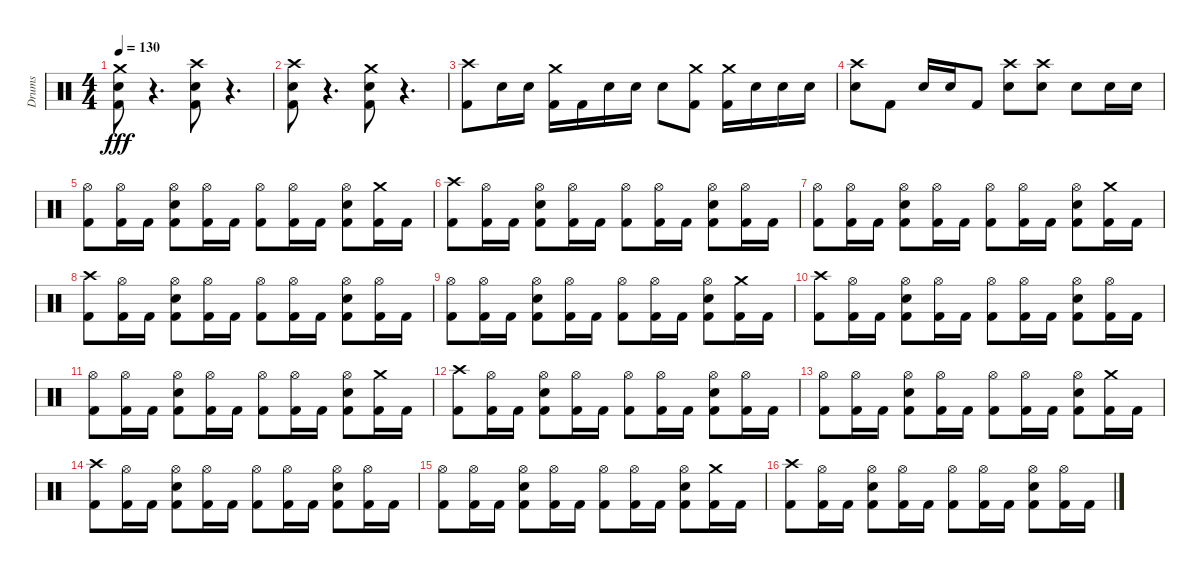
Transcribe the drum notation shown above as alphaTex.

\track ("Drums" "Drums") {instrument percussion}
\staff {score}
\articulation defaults
\ts (4 4)
\tempo 130
\clef neutral
\ks c
("Kick (hit) 2" "Electric Snare (hit)" "Crash medium (hit)").8{dy fff} r.4{d} ("Electric Snare (hit)" "Kick (hit) 2" "Crash high (hit)").8 r.4{d} |
("Crash high (hit)" "Electric Snare (hit)" "Kick (hit) 2").8 r.4{d} ("Electric Snare (hit)" "Kick (hit) 2" "Crash medium (hit)").8 r.4{d} |
("Crash high (hit)" "Kick (hit) 2").8 "Electric Snare (hit)".16 "Electric Snare (hit)".16 ("Crash medium (hit)" "Kick (hit) 2").16 "Kick (hit) 2".16 "Electric Snare (hit)".16 "Electric Snare (hit)".16 "Electric Snare (hit)".8 ("Crash medium (hit)" "Kick (hit) 2").8 ("Crash medium (hit)" "Kick (hit) 2").16 "Electric Snare (hit)".16 "Electric Snare (hit)".16 "Electric Snare (hit)".16 |
("Crash high (hit)" "Electric Snare (hit)").8 "Kick (hit) 2".8 "Electric Snare (hit)".16 "Electric Snare (hit)".16 "Kick (hit) 2".8 ("Crash high (hit)" "Electric Snare (hit)").8 ("Electric Snare (hit)" "Crash high (hit)").8 "Electric Snare (hit)".8 "Electric Snare (hit)".16 "Electric Snare (hit)".16 |
("Hi-Hat (open)" "Kick (hit) 2").8 ("Hi-Hat (open)" "Kick (hit) 2").16 "Kick (hit) 2".16 ("Hi-Hat (open)" "Electric Snare (hit)" "Kick (hit) 2").8 ("Hi-Hat (open)" "Kick (hit) 2").16 "Kick (hit) 2".16 ("Hi-Hat (open)" "Kick (hit) 2").8 ("Hi-Hat (open)" "Kick (hit) 2").16 "Kick (hit) 2".16 ("Hi-Hat (open)" "Electric Snare (hit)" "Kick (hit) 2").8 ("Crash medium (hit)" "Kick (hit) 2").16 "Kick (hit) 2".16 |
("Kick (hit) 2" "Crash high (hit)").8 ("Hi-Hat (open)" "Kick (hit) 2").16 "Kick (hit) 2".16 ("Hi-Hat (open)" "Electric Snare (hit)" "Kick (hit) 2").8 ("Hi-Hat (open)" "Kick (hit) 2").16 "Kick (hit) 2".16 ("Hi-Hat (open)" "Kick (hit) 2").8 ("Hi-Hat (open)" "Kick (hit) 2").16 "Kick (hit) 2".16 ("Hi-Hat (open)" "Electric Snare (hit)" "Kick (hit) 2").8 ("Hi-Hat (open)" "Kick (hit) 2").16 "Kick (hit) 2".16 |
("Hi-Hat (open)" "Kick (hit) 2").8 ("Hi-Hat (open)" "Kick (hit) 2").16 "Kick (hit) 2".16 ("Hi-Hat (open)" "Electric Snare (hit)" "Kick (hit) 2").8 ("Hi-Hat (open)" "Kick (hit) 2").16 "Kick (hit) 2".16 ("Hi-Hat (open)" "Kick (hit) 2").8 ("Hi-Hat (open)" "Kick (hit) 2").16 "Kick (hit) 2".16 ("Hi-Hat (open)" "Electric Snare (hit)" "Kick (hit) 2").8 ("Crash medium (hit)" "Kick (hit) 2").16 "Kick (hit) 2".16 |
("Kick (hit) 2" "Crash high (hit)").8 ("Hi-Hat (open)" "Kick (hit) 2").16 "Kick (hit) 2".16 ("Hi-Hat (open)" "Electric Snare (hit)" "Kick (hit) 2").8 ("Hi-Hat (open)" "Kick (hit) 2").16 "Kick (hit) 2".16 ("Hi-Hat (open)" "Kick (hit) 2").8 ("Hi-Hat (open)" "Kick (hit) 2").16 "Kick (hit) 2".16 ("Hi-Hat (open)" "Electric Snare (hit)" "Kick (hit) 2").8 ("Hi-Hat (open)" "Kick (hit) 2").16 "Kick (hit) 2".16 |
("Hi-Hat (open)" "Kick (hit) 2").8 ("Hi-Hat (open)" "Kick (hit) 2").16 "Kick (hit) 2".16 ("Hi-Hat (open)" "Electric Snare (hit)" "Kick (hit) 2").8 ("Hi-Hat (open)" "Kick (hit) 2").16 "Kick (hit) 2".16 ("Hi-Hat (open)" "Kick (hit) 2").8 ("Hi-Hat (open)" "Kick (hit) 2").16 "Kick (hit) 2".16 ("Hi-Hat (open)" "Electric Snare (hit)" "Kick (hit) 2").8 ("Crash medium (hit)" "Kick (hit) 2").16 "Kick (hit) 2".16 |
("Kick (hit) 2" "Crash high (hit)").8 ("Hi-Hat (open)" "Kick (hit) 2").16 "Kick (hit) 2".16 ("Hi-Hat (open)" "Electric Snare (hit)" "Kick (hit) 2").8 ("Hi-Hat (open)" "Kick (hit) 2").16 "Kick (hit) 2".16 ("Hi-Hat (open)" "Kick (hit) 2").8 ("Hi-Hat (open)" "Kick (hit) 2").16 "Kick (hit) 2".16 ("Hi-Hat (open)" "Electric Snare (hit)" "Kick (hit) 2").8 ("Hi-Hat (open)" "Kick (hit) 2").16 "Kick (hit) 2".16 |
("Hi-Hat (open)" "Kick (hit) 2").8 ("Hi-Hat (open)" "Kick (hit) 2").16 "Kick (hit) 2".16 ("Hi-Hat (open)" "Electric Snare (hit)" "Kick (hit) 2").8 ("Hi-Hat (open)" "Kick (hit) 2").16 "Kick (hit) 2".16 ("Hi-Hat (open)" "Kick (hit) 2").8 ("Hi-Hat (open)" "Kick (hit) 2").16 "Kick (hit) 2".16 ("Hi-Hat (open)" "Electric Snare (hit)" "Kick (hit) 2").8 ("Crash medium (hit)" "Kick (hit) 2").16 "Kick (hit) 2".16 |
("Kick (hit) 2" "Crash high (hit)").8 ("Hi-Hat (open)" "Kick (hit) 2").16 "Kick (hit) 2".16 ("Hi-Hat (open)" "Electric Snare (hit)" "Kick (hit) 2").8 ("Hi-Hat (open)" "Kick (hit) 2").16 "Kick (hit) 2".16 ("Hi-Hat (open)" "Kick (hit) 2").8 ("Hi-Hat (open)" "Kick (hit) 2").16 "Kick (hit) 2".16 ("Hi-Hat (open)" "Electric Snare (hit)" "Kick (hit) 2").8 ("Hi-Hat (open)" "Kick (hit) 2").16 "Kick (hit) 2".16 |
("Hi-Hat (open)" "Kick (hit) 2").8 ("Hi-Hat (open)" "Kick (hit) 2").16 "Kick (hit) 2".16 ("Hi-Hat (open)" "Electric Snare (hit)" "Kick (hit) 2").8 ("Hi-Hat (open)" "Kick (hit) 2").16 "Kick (hit) 2".16 ("Hi-Hat (open)" "Kick (hit) 2").8 ("Hi-Hat (open)" "Kick (hit) 2").16 "Kick (hit) 2".16 ("Hi-Hat (open)" "Electric Snare (hit)" "Kick (hit) 2").8 ("Crash medium (hit)" "Kick (hit) 2").16 "Kick (hit) 2".16 |
("Kick (hit) 2" "Crash high (hit)").8 ("Hi-Hat (open)" "Kick (hit) 2").16 "Kick (hit) 2".16 ("Hi-Hat (open)" "Electric Snare (hit)" "Kick (hit) 2").8 ("Hi-Hat (open)" "Kick (hit) 2").16 "Kick (hit) 2".16 ("Hi-Hat (open)" "Kick (hit) 2").8 ("Hi-Hat (open)" "Kick (hit) 2").16 "Kick (hit) 2".16 ("Hi-Hat (open)" "Electric Snare (hit)" "Kick (hit) 2").8 ("Hi-Hat (open)" "Kick (hit) 2").16 "Kick (hit) 2".16 |
("Hi-Hat (open)" "Kick (hit) 2").8 ("Hi-Hat (open)" "Kick (hit) 2").16 "Kick (hit) 2".16 ("Hi-Hat (open)" "Electric Snare (hit)" "Kick (hit) 2").8 ("Hi-Hat (open)" "Kick (hit) 2").16 "Kick (hit) 2".16 ("Hi-Hat (open)" "Kick (hit) 2").8 ("Hi-Hat (open)" "Kick (hit) 2").16 "Kick (hit) 2".16 ("Hi-Hat (open)" "Electric Snare (hit)" "Kick (hit) 2").8 ("Crash medium (hit)" "Kick (hit) 2").16 "Kick (hit) 2".16 |
("Kick (hit) 2" "Crash high (hit)").8 ("Kick (hit) 2" "Hi-Hat (open)").16 "Kick (hit) 2".16 ("Electric Snare (hit)" "Kick (hit) 2" "Hi-Hat (open)").8 ("Kick (hit) 2" "Hi-Hat (open)").16 "Kick (hit) 2".16 ("Hi-Hat (open)" "Kick (hit) 2").8 ("Hi-Hat (open)" "Kick (hit) 2").16 "Kick (hit) 2".16 ("Hi-Hat (open)" "Electric Snare (hit)" "Kick (hit) 2").8 ("Kick (hit) 2" "Hi-Hat (open)").16 "Kick (hit) 2".16
